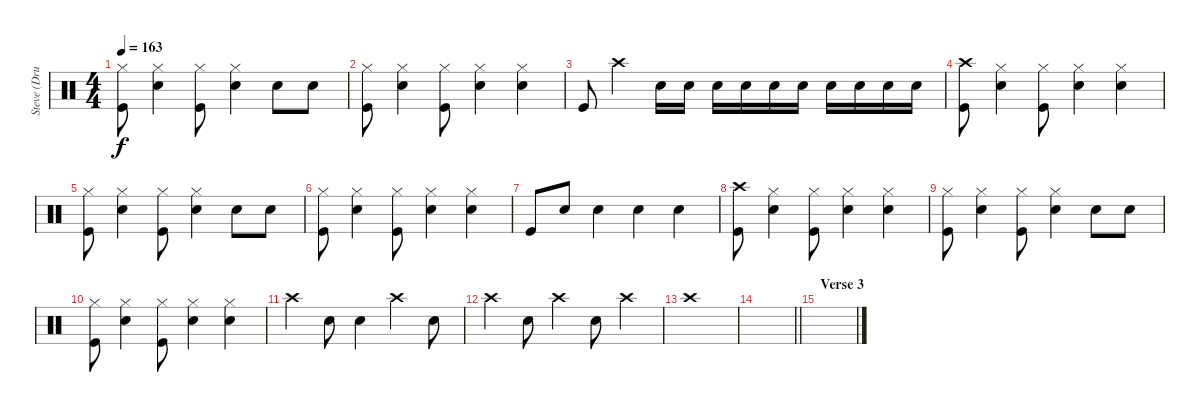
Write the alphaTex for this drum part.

\track ("Steve (Drums)" "Steve (Dru") {instrument percussion}
\staff {score}
\articulation defaults
\ts (4 4)
\tempo 163
\clef neutral
\ks c
("Hi-Hat (closed)" "Kick (hit)").8{dy f} ("Hi-Hat (closed)" "Electric Snare (hit)").4 ("Hi-Hat (closed)" "Kick (hit)").8 ("Hi-Hat (closed)" "Electric Snare (hit)").4 "Electric Snare (hit)".8 "Electric Snare (hit)".8 |
("Hi-Hat (closed)" "Kick (hit)").8 ("Hi-Hat (closed)" "Electric Snare (hit)").4 ("Hi-Hat (closed)" "Kick (hit)").8 ("Hi-Hat (closed)" "Electric Snare (hit)").4 ("Hi-Hat (closed)" "Electric Snare (hit)").4 |
"Kick (hit)".8 "Crash high (hit)".4 "Electric Snare (hit)".16 "Electric Snare (hit)".16 "Electric Snare (hit)".16 "Electric Snare (hit)".16 "Electric Snare (hit)".16 "Electric Snare (hit)".16 "Electric Snare (hit)".16 "Electric Snare (hit)".16 "Electric Snare (hit)".16 "Electric Snare (hit)".16 |
("Crash high (hit)" "Kick (hit)").8 ("Hi-Hat (closed)" "Electric Snare (hit)").4 ("Hi-Hat (closed)" "Kick (hit)").8 ("Hi-Hat (closed)" "Electric Snare (hit)").4 ("Hi-Hat (closed)" "Electric Snare (hit)").4 |
("Hi-Hat (closed)" "Kick (hit)").8 ("Hi-Hat (closed)" "Electric Snare (hit)").4 ("Hi-Hat (closed)" "Kick (hit)").8 ("Hi-Hat (closed)" "Electric Snare (hit)").4 "Electric Snare (hit)".8 "Electric Snare (hit)".8 |
("Hi-Hat (closed)" "Kick (hit)").8 ("Hi-Hat (closed)" "Electric Snare (hit)").4 ("Hi-Hat (closed)" "Kick (hit)").8 ("Hi-Hat (closed)" "Electric Snare (hit)").4 ("Hi-Hat (closed)" "Electric Snare (hit)").4 |
"Kick (hit)".8 "Electric Snare (hit)".8 "Electric Snare (hit)".4 "Electric Snare (hit)".4 "Electric Snare (hit)".4 |
("Crash high (hit)" "Kick (hit)").8 ("Hi-Hat (closed)" "Electric Snare (hit)").4 ("Hi-Hat (closed)" "Kick (hit)").8 ("Hi-Hat (closed)" "Electric Snare (hit)").4 ("Hi-Hat (closed)" "Electric Snare (hit)").4 |
("Hi-Hat (closed)" "Kick (hit)").8 ("Hi-Hat (closed)" "Electric Snare (hit)").4 ("Hi-Hat (closed)" "Kick (hit)").8 ("Hi-Hat (closed)" "Electric Snare (hit)").4 "Electric Snare (hit)".8 "Electric Snare (hit)".8 |
("Hi-Hat (closed)" "Kick (hit)").8 ("Hi-Hat (closed)" "Electric Snare (hit)").4 ("Hi-Hat (closed)" "Kick (hit)").8 ("Hi-Hat (closed)" "Electric Snare (hit)").4 ("Hi-Hat (closed)" "Electric Snare (hit)").4 |
"Crash high (hit)".4 "Electric Snare (hit)".8 "Electric Snare (hit)".4 "Crash high (hit)".4 "Electric Snare (hit)".8 |
"Crash high (hit)".4 "Electric Snare (hit)".8 "Crash high (hit)".4 "Electric Snare (hit)".8 "Crash high (hit)".4 |
"Crash high (hit)".1 |
\barLineRight lightlight
|
\section ("" "Verse 3")
